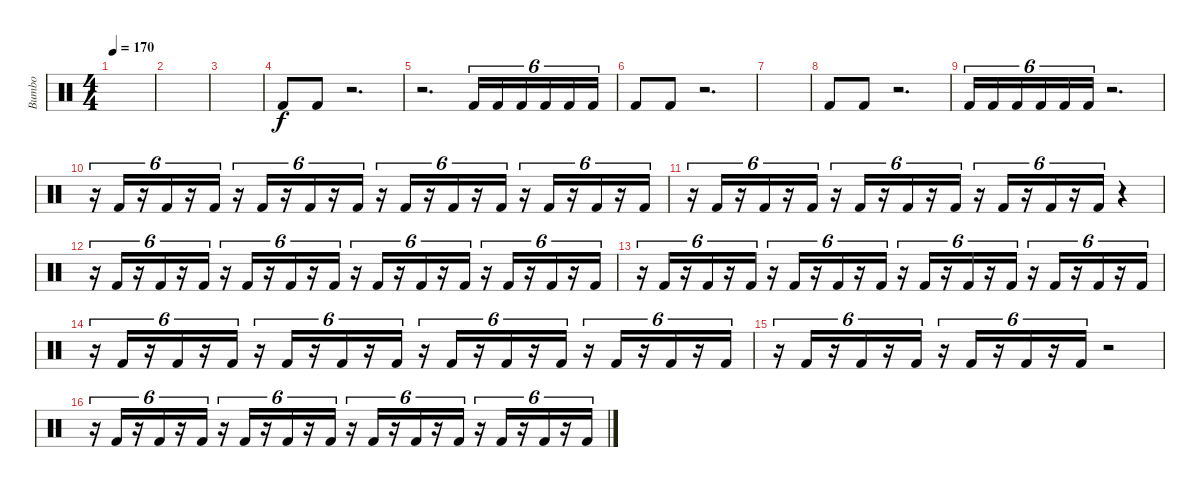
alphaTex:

\track ("Bumbo" "Bumbo") {instrument percussion}
\staff {score}
\articulation defaults
\ts (4 4)
\tempo 170
\clef neutral
\ks c
|
|
|
"Kick (hit) 2".8 "Kick (hit) 2".8 r.2{d} |
r.2{d} "Kick (hit) 2".16{tu (6 4)} "Kick (hit) 2".16{tu (6 4)} "Kick (hit) 2".16{tu (6 4)} "Kick (hit) 2".16{tu (6 4)} "Kick (hit) 2".16{tu (6 4)} "Kick (hit) 2".16{tu (6 4)} |
"Kick (hit) 2".8 "Kick (hit) 2".8 r.2{d} |
|
"Kick (hit) 2".8 "Kick (hit) 2".8 r.2{d} |
"Kick (hit) 2".16{tu (6 4)} "Kick (hit) 2".16{tu (6 4)} "Kick (hit) 2".16{tu (6 4)} "Kick (hit) 2".16{tu (6 4)} "Kick (hit) 2".16{tu (6 4)} "Kick (hit) 2".16{tu (6 4)} r.2{d} |
r.16{tu (6 4)} "Kick (hit) 2".16{tu (6 4)} r.16{tu (6 4)} "Kick (hit) 2".16{tu (6 4)} r.16{tu (6 4)} "Kick (hit) 2".16{tu (6 4)} r.16{tu (6 4)} "Kick (hit) 2".16{tu (6 4)} r.16{tu (6 4)} "Kick (hit) 2".16{tu (6 4)} r.16{tu (6 4)} "Kick (hit) 2".16{tu (6 4)} r.16{tu (6 4)} "Kick (hit) 2".16{tu (6 4)} r.16{tu (6 4)} "Kick (hit) 2".16{tu (6 4)} r.16{tu (6 4)} "Kick (hit) 2".16{tu (6 4)} r.16{tu (6 4)} "Kick (hit) 2".16{tu (6 4)} r.16{tu (6 4)} "Kick (hit) 2".16{tu (6 4)} r.16{tu (6 4)} "Kick (hit) 2".16{tu (6 4)} |
r.16{tu (6 4)} "Kick (hit) 2".16{tu (6 4)} r.16{tu (6 4)} "Kick (hit) 2".16{tu (6 4)} r.16{tu (6 4)} "Kick (hit) 2".16{tu (6 4)} r.16{tu (6 4)} "Kick (hit) 2".16{tu (6 4)} r.16{tu (6 4)} "Kick (hit) 2".16{tu (6 4)} r.16{tu (6 4)} "Kick (hit) 2".16{tu (6 4)} r.16{tu (6 4)} "Kick (hit) 2".16{tu (6 4)} r.16{tu (6 4)} "Kick (hit) 2".16{tu (6 4)} r.16{tu (6 4)} "Kick (hit) 2".16{tu (6 4)} r.4 |
r.16{tu (6 4)} "Kick (hit) 2".16{tu (6 4)} r.16{tu (6 4)} "Kick (hit) 2".16{tu (6 4)} r.16{tu (6 4)} "Kick (hit) 2".16{tu (6 4)} r.16{tu (6 4)} "Kick (hit) 2".16{tu (6 4)} r.16{tu (6 4)} "Kick (hit) 2".16{tu (6 4)} r.16{tu (6 4)} "Kick (hit) 2".16{tu (6 4)} r.16{tu (6 4)} "Kick (hit) 2".16{tu (6 4)} r.16{tu (6 4)} "Kick (hit) 2".16{tu (6 4)} r.16{tu (6 4)} "Kick (hit) 2".16{tu (6 4)} r.16{tu (6 4)} "Kick (hit) 2".16{tu (6 4)} r.16{tu (6 4)} "Kick (hit) 2".16{tu (6 4)} r.16{tu (6 4)} "Kick (hit) 2".16{tu (6 4)} |
r.16{tu (6 4)} "Kick (hit) 2".16{tu (6 4)} r.16{tu (6 4)} "Kick (hit) 2".16{tu (6 4)} r.16{tu (6 4)} "Kick (hit) 2".16{tu (6 4)} r.16{tu (6 4)} "Kick (hit) 2".16{tu (6 4)} r.16{tu (6 4)} "Kick (hit) 2".16{tu (6 4)} r.16{tu (6 4)} "Kick (hit) 2".16{tu (6 4)} r.16{tu (6 4)} "Kick (hit) 2".16{tu (6 4)} r.16{tu (6 4)} "Kick (hit) 2".16{tu (6 4)} r.16{tu (6 4)} "Kick (hit) 2".16{tu (6 4)} r.16{tu (6 4)} "Kick (hit) 2".16{tu (6 4)} r.16{tu (6 4)} "Kick (hit) 2".16{tu (6 4)} r.16{tu (6 4)} "Kick (hit) 2".16{tu (6 4)} |
r.16{tu (6 4)} "Kick (hit) 2".16{tu (6 4)} r.16{tu (6 4)} "Kick (hit) 2".16{tu (6 4)} r.16{tu (6 4)} "Kick (hit) 2".16{tu (6 4)} r.16{tu (6 4)} "Kick (hit) 2".16{tu (6 4)} r.16{tu (6 4)} "Kick (hit) 2".16{tu (6 4)} r.16{tu (6 4)} "Kick (hit) 2".16{tu (6 4)} r.16{tu (6 4)} "Kick (hit) 2".16{tu (6 4)} r.16{tu (6 4)} "Kick (hit) 2".16{tu (6 4)} r.16{tu (6 4)} "Kick (hit) 2".16{tu (6 4)} r.16{tu (6 4)} "Kick (hit) 2".16{tu (6 4)} r.16{tu (6 4)} "Kick (hit) 2".16{tu (6 4)} r.16{tu (6 4)} "Kick (hit) 2".16{tu (6 4)} |
r.16{tu (6 4)} "Kick (hit) 2".16{tu (6 4)} r.16{tu (6 4)} "Kick (hit) 2".16{tu (6 4)} r.16{tu (6 4)} "Kick (hit) 2".16{tu (6 4)} r.16{tu (6 4)} "Kick (hit) 2".16{tu (6 4)} r.16{tu (6 4)} "Kick (hit) 2".16{tu (6 4)} r.16{tu (6 4)} "Kick (hit) 2".16{tu (6 4)} r.2 |
r.16{tu (6 4)} "Kick (hit) 2".16{tu (6 4)} r.16{tu (6 4)} "Kick (hit) 2".16{tu (6 4)} r.16{tu (6 4)} "Kick (hit) 2".16{tu (6 4)} r.16{tu (6 4)} "Kick (hit) 2".16{tu (6 4)} r.16{tu (6 4)} "Kick (hit) 2".16{tu (6 4)} r.16{tu (6 4)} "Kick (hit) 2".16{tu (6 4)} r.16{tu (6 4)} "Kick (hit) 2".16{tu (6 4)} r.16{tu (6 4)} "Kick (hit) 2".16{tu (6 4)} r.16{tu (6 4)} "Kick (hit) 2".16{tu (6 4)} r.16{tu (6 4)} "Kick (hit) 2".16{tu (6 4)} r.16{tu (6 4)} "Kick (hit) 2".16{tu (6 4)} r.16{tu (6 4)} "Kick (hit) 2".16{tu (6 4)}
